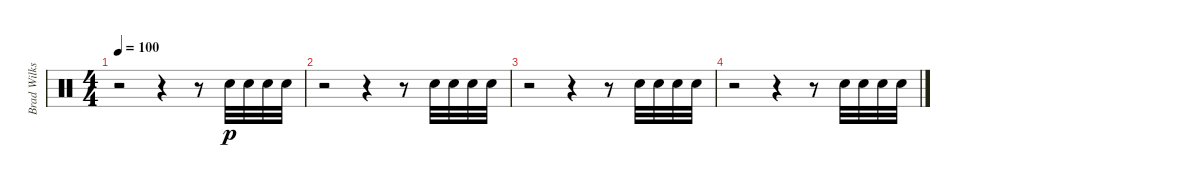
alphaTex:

\track ("Brad Wilks (some extras)" "Brad Wilks") {instrument percussion}
\staff {score}
\articulation defaults
\ts (4 4)
\tempo 100
\clef neutral
\ks c
r.2{dy p} r.4 r.8 "Electric Snare (hit)".32 "Electric Snare (hit)".32 "Electric Snare (hit)".32 "Electric Snare (hit)".32 |
r.2 r.4 r.8 "Electric Snare (hit)".32 "Electric Snare (hit)".32 "Electric Snare (hit)".32 "Electric Snare (hit)".32 |
r.2 r.4 r.8 "Electric Snare (hit)".32 "Electric Snare (hit)".32 "Electric Snare (hit)".32 "Electric Snare (hit)".32 |
r.2 r.4 r.8 "Electric Snare (hit)".32 "Electric Snare (hit)".32 "Electric Snare (hit)".32 "Electric Snare (hit)".32
